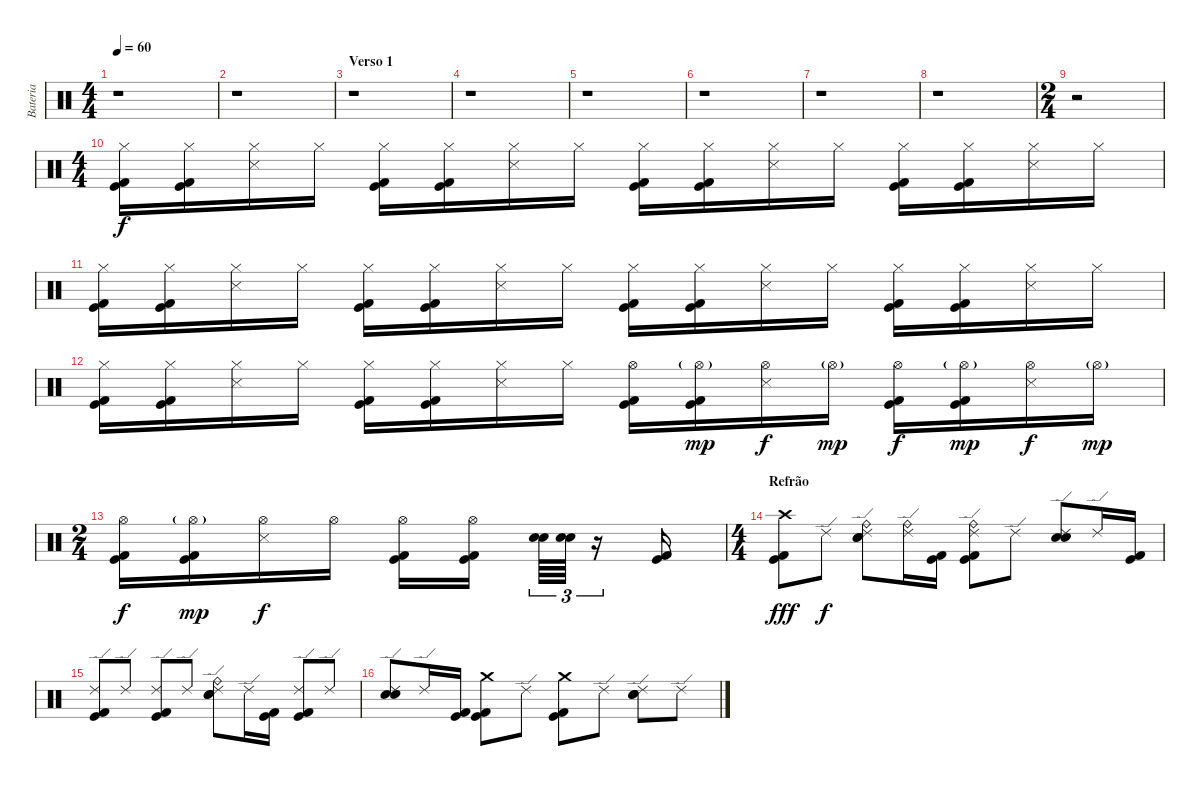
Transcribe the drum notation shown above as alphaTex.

\track ("Bateria" "Bateria") {instrument percussion}
\staff {score}
\articulation defaults
\ts (4 4)
\tempo 60
\clef neutral
\ks c
r.1{dy f} |
r.1 |
\section ("" "Verso 1")
r.1 |
r.1 |
r.1 |
r.1 |
r.1 |
r.1 |
\ts (2 4)
r.2 |
\ts (4 4)
("Hi-Hat (closed)" "Kick (hit) 2" "Kick (hit)").16 ("Hi-Hat (closed)" "Kick (hit) 2" "Kick (hit)").16 ("Hi-Hat (closed)" "Snare (side stick) 3").16 "Hi-Hat (closed)".16 ("Hi-Hat (closed)" "Kick (hit) 2" "Kick (hit)").16 ("Hi-Hat (closed)" "Kick (hit) 2" "Kick (hit)").16 ("Hi-Hat (closed)" "Snare (side stick) 3").16 "Hi-Hat (closed)".16 ("Hi-Hat (closed)" "Kick (hit) 2" "Kick (hit)").16 ("Hi-Hat (closed)" "Kick (hit) 2" "Kick (hit)").16 ("Hi-Hat (closed)" "Snare (side stick) 3").16 "Hi-Hat (closed)".16 ("Hi-Hat (closed)" "Kick (hit) 2" "Kick (hit)").16 ("Hi-Hat (closed)" "Kick (hit) 2" "Kick (hit)").16 ("Hi-Hat (closed)" "Snare (side stick) 3").16 "Hi-Hat (closed)".16 |
("Hi-Hat (closed)" "Kick (hit) 2" "Kick (hit)").16 ("Hi-Hat (closed)" "Kick (hit) 2" "Kick (hit)").16 ("Hi-Hat (closed)" "Snare (side stick) 3").16 "Hi-Hat (closed)".16 ("Hi-Hat (closed)" "Kick (hit) 2" "Kick (hit)").16 ("Hi-Hat (closed)" "Kick (hit) 2" "Kick (hit)").16 ("Hi-Hat (closed)" "Snare (side stick) 3").16 "Hi-Hat (closed)".16 ("Hi-Hat (closed)" "Kick (hit) 2" "Kick (hit)").16 ("Hi-Hat (closed)" "Kick (hit) 2" "Kick (hit)").16 ("Hi-Hat (closed)" "Snare (side stick) 3").16 "Hi-Hat (closed)".16 ("Hi-Hat (closed)" "Kick (hit) 2" "Kick (hit)").16 ("Hi-Hat (closed)" "Kick (hit) 2" "Kick (hit)").16 ("Hi-Hat (closed)" "Snare (side stick) 3").16 "Hi-Hat (closed)".16 |
("Hi-Hat (closed)" "Kick (hit) 2" "Kick (hit)").16 ("Hi-Hat (closed)" "Kick (hit) 2" "Kick (hit)").16 ("Hi-Hat (closed)" "Snare (side stick) 3").16 "Hi-Hat (closed)".16 ("Hi-Hat (closed)" "Kick (hit) 2" "Kick (hit)").16 ("Hi-Hat (closed)" "Kick (hit) 2" "Kick (hit)").16 ("Hi-Hat (closed)" "Snare (side stick) 3").16 "Hi-Hat (closed)".16 ("Hi-Hat (open)" "Kick (hit) 2" "Kick (hit)").16 ("Hi-Hat (open)"{g} "Kick (hit) 2" "Kick (hit)").16{dy mp} ("Hi-Hat (open)" "Snare (side stick) 3").16{dy f} "Hi-Hat (open)"{g}.16{dy mp} ("Hi-Hat (open)" "Kick (hit) 2" "Kick (hit)").16{dy f} ("Hi-Hat (open)"{g} "Kick (hit) 2" "Kick (hit)").16{dy mp} ("Hi-Hat (open)" "Snare (side stick) 3").16{dy f} "Hi-Hat (open)"{g}.16{dy mp} |
\ts (2 4)
("Hi-Hat (open)" "Kick (hit) 2" "Kick (hit)").16{dy f} ("Hi-Hat (open)"{g} "Kick (hit) 2" "Kick (hit)").16{dy mp} ("Hi-Hat (open)" "Snare (side stick) 3").16{dy f} "Hi-Hat (open)".16 ("Hi-Hat (open)" "Kick (hit) 2" "Kick (hit)").16 ("Hi-Hat (open)" "Kick (hit) 2" "Kick (hit)").16 ("Electric Snare (hit)" "Snare (hit) 2").64{tu (3 2)} ("Electric Snare (hit)" "Snare (hit) 2").64{tu (3 2)} r.16{tu (3 2)} ("Kick (hit) 2" "Kick (hit)").16 |
\ts (4 4)
\section ("" "Refrão")
("Crash high (hit)" "Kick (hit) 2" "Kick (hit)").8{dy fff} "Ride (edge) 2".8{dy f} ("Ride (bell)" "Ride (edge) 2" "Electric Snare (hit)" "Snare (hit) 2").8 ("Ride (bell)" "Ride (edge) 2").16 ("Kick (hit) 2" "Kick (hit)").16 ("Ride (bell)" "Ride (edge) 2" "Kick (hit) 2" "Kick (hit)").8 "Ride (edge) 2".8 ("Ride (edge) 2" "Electric Snare (hit)" "Snare (hit) 2").8 "Ride (edge) 2".16 ("Kick (hit) 2" "Kick (hit)").16 |
("Ride (edge) 2" "Kick (hit) 2" "Kick (hit)").8 "Ride (edge) 2".8 ("Ride (edge) 2" "Kick (hit) 2" "Kick (hit)").8 "Ride (edge) 2".8 ("Ride (bell)" "Ride (edge) 2" "Electric Snare (hit)" "Snare (hit) 2").8 "Ride (edge) 2".16 ("Kick (hit) 2" "Kick (hit)").16 ("Ride (edge) 2" "Kick (hit) 2" "Kick (hit)").8 "Ride (edge) 2".8 |
("Ride (edge) 2" "Electric Snare (hit)" "Snare (hit) 2").8 "Ride (edge) 2".16 ("Kick (hit) 2" "Kick (hit)").16 ("Crash medium (hit)" "Kick (hit) 2" "Kick (hit)").8 "Ride (edge) 2".8 ("Crash medium (hit)" "Kick (hit) 2" "Kick (hit)").8 "Ride (edge) 2".8 ("Ride (edge) 2" "Electric Snare (hit)" "Snare (hit) 2").8 "Ride (edge) 2".8
